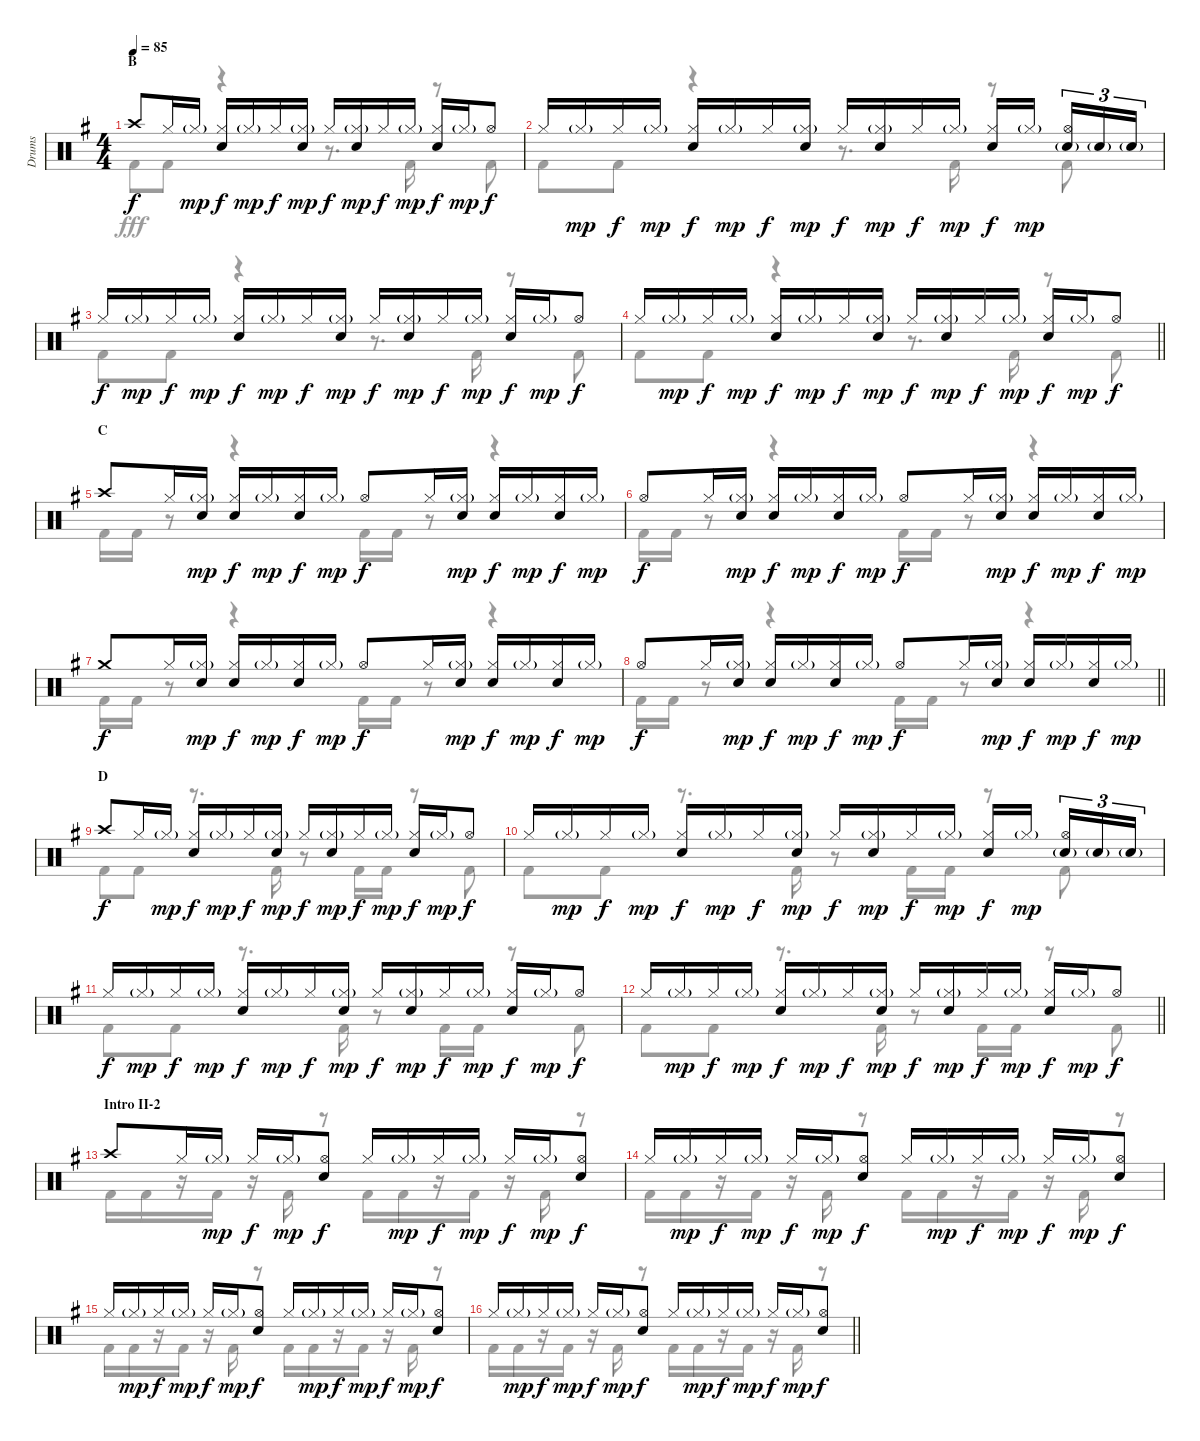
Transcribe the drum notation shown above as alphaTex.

\track ("Drums" "Drums") {instrument percussion}
\staff {score}
\articulation defaults
\voice
\ts (4 4)
\section ("" "B")
\tempo 85
\clef neutral
\ks g "Crash high (hit)".8{dy f} "Hi-Hat (closed)".16 "Hi-Hat (closed)"{g}.16{dy mp}
("Hi-Hat (closed)" "Snare (hit) 2").16{dy f} "Hi-Hat (closed)"{g}.16{dy mp} "Hi-Hat (closed)".16{dy f} ("Hi-Hat (closed)"{g} "Snare (hit) 2").16{dy mp} "Hi-Hat (closed)".16{dy f} ("Hi-Hat (closed)"{g} "Snare (hit) 2").16{dy mp} "Hi-Hat (closed)".16{dy f} "Hi-Hat (closed)"{g}.16{dy mp} ("Hi-Hat (closed)" "Snare (hit) 2").16{dy f} "Hi-Hat (closed)"{g}.16{dy mp} "Hi-Hat (open)".8{dy f} |
"Hi-Hat (closed)".16 "Hi-Hat (closed)"{g}.16{dy mp} "Hi-Hat (closed)".16{dy f} "Hi-Hat (closed)"{g}.16{dy mp} ("Hi-Hat (closed)" "Snare (hit) 2").16{dy f} "Hi-Hat (closed)"{g}.16{dy mp} "Hi-Hat (closed)".16{dy f} ("Hi-Hat (closed)"{g} "Snare (hit) 2").16{dy mp} "Hi-Hat (closed)".16{dy f} ("Hi-Hat (closed)"{g} "Snare (hit) 2").16{dy mp} "Hi-Hat (closed)".16{dy f} "Hi-Hat (closed)"{g}.16{dy mp} ("Hi-Hat (closed)" "Snare (hit) 2").16{dy f} "Hi-Hat (closed)"{g}.16{dy mp beam splitsecondary} ("Hi-Hat (open)" "Snare (hit) 2"{g}).16{tu (3 2)} "Snare (hit) 2"{g}.16{tu (3 2)} "Snare (hit) 2"{g}.16{tu (3 2)} |
"Hi-Hat (closed)".16{dy f} "Hi-Hat (closed)"{g}.16{dy mp} "Hi-Hat (closed)".16{dy f} "Hi-Hat (closed)"{g}.16{dy mp} ("Hi-Hat (closed)" "Snare (hit) 2").16{dy f} "Hi-Hat (closed)"{g}.16{dy mp} "Hi-Hat (closed)".16{dy f} ("Hi-Hat (closed)"{g} "Snare (hit) 2").16{dy mp} "Hi-Hat (closed)".16{dy f} ("Hi-Hat (closed)"{g} "Snare (hit) 2").16{dy mp} "Hi-Hat (closed)".16{dy f} "Hi-Hat (closed)"{g}.16{dy mp} ("Hi-Hat (closed)" "Snare (hit) 2").16{dy f} "Hi-Hat (closed)"{g}.16{dy mp} "Hi-Hat (open)".8{dy f} |
\barLineRight lightlight "Hi-Hat (closed)".16 "Hi-Hat (closed)"{g}.16{dy mp} "Hi-Hat (closed)".16{dy f} "Hi-Hat (closed)"{g}.16{dy mp}
("Hi-Hat (closed)" "Snare (hit) 2").16{dy f} "Hi-Hat (closed)"{g}.16{dy mp} "Hi-Hat (closed)".16{dy f} ("Hi-Hat (closed)"{g} "Snare (hit) 2").16{dy mp} "Hi-Hat (closed)".16{dy f} ("Hi-Hat (closed)"{g} "Snare (hit) 2").16{dy mp} "Hi-Hat (closed)".16{dy f} "Hi-Hat (closed)"{g}.16{dy mp} ("Hi-Hat (closed)" "Snare (hit) 2").16{dy f} "Hi-Hat (closed)"{g}.16{dy mp} "Hi-Hat (open)".8{dy f} |
\section ("" "C")
"Crash high (hit)".8 "Hi-Hat (closed)".16 ("Hi-Hat (closed)"{g} "Snare (hit) 2").16{dy mp} ("Hi-Hat (closed)" "Snare (hit) 2").16{dy f} "Hi-Hat (closed)"{g}.16{dy mp} ("Hi-Hat (closed)" "Snare (hit) 2").16{dy f} "Hi-Hat (closed)"{g}.16{dy mp} "Hi-Hat (open)".8{dy f} "Hi-Hat (closed)".16 ("Hi-Hat (closed)"{g} "Snare (hit) 2").16{dy mp} ("Hi-Hat (closed)" "Snare (hit) 2").16{dy f} "Hi-Hat (closed)"{g}.16{dy mp} ("Hi-Hat (closed)" "Snare (hit) 2").16{dy f} "Hi-Hat (closed)"{g}.16{dy mp} |
"Hi-Hat (open)".8{dy f} "Hi-Hat (closed)".16 ("Hi-Hat (closed)"{g} "Snare (hit) 2").16{dy mp} ("Hi-Hat (closed)" "Snare (hit) 2").16{dy f} "Hi-Hat (closed)"{g}.16{dy mp} ("Hi-Hat (closed)" "Snare (hit) 2").16{dy f} "Hi-Hat (closed)"{g}.16{dy mp} "Hi-Hat (open)".8{dy f} "Hi-Hat (closed)".16 ("Hi-Hat (closed)"{g} "Snare (hit) 2").16{dy mp} ("Hi-Hat (closed)" "Snare (hit) 2").16{dy f} "Hi-Hat (closed)"{g}.16{dy mp} ("Hi-Hat (closed)" "Snare (hit) 2").16{dy f} "Hi-Hat (closed)"{g}.16{dy mp} |
"Crash medium (hit)".8{dy f} "Hi-Hat (closed)".16 ("Hi-Hat (closed)"{g} "Snare (hit) 2").16{dy mp} ("Hi-Hat (closed)" "Snare (hit) 2").16{dy f} "Hi-Hat (closed)"{g}.16{dy mp} ("Hi-Hat (closed)" "Snare (hit) 2").16{dy f} "Hi-Hat (closed)"{g}.16{dy mp} "Hi-Hat (open)".8{dy f} "Hi-Hat (closed)".16 ("Hi-Hat (closed)"{g} "Snare (hit) 2").16{dy mp} ("Hi-Hat (closed)" "Snare (hit) 2").16{dy f} "Hi-Hat (closed)"{g}.16{dy mp} ("Hi-Hat (closed)" "Snare (hit) 2").16{dy f} "Hi-Hat (closed)"{g}.16{dy mp} |
\barLineRight lightlight "Hi-Hat (open)".8{dy f} "Hi-Hat (closed)".16
("Hi-Hat (closed)"{g} "Snare (hit) 2").16{dy mp} ("Hi-Hat (closed)" "Snare (hit) 2").16{dy f} "Hi-Hat (closed)"{g}.16{dy mp} ("Hi-Hat (closed)" "Snare (hit) 2").16{dy f} "Hi-Hat (closed)"{g}.16{dy mp} "Hi-Hat (open)".8{dy f} "Hi-Hat (closed)".16 ("Hi-Hat (closed)"{g} "Snare (hit) 2").16{dy mp} ("Hi-Hat (closed)" "Snare (hit) 2").16{dy f} "Hi-Hat (closed)"{g}.16{dy mp} ("Hi-Hat (closed)" "Snare (hit) 2").16{dy f} "Hi-Hat (closed)"{g}.16{dy mp} |
\section ("" "D")
"Crash high (hit)".8{dy f} "Hi-Hat (closed)".16 "Hi-Hat (closed)"{g}.16{dy mp} ("Hi-Hat (closed)" "Snare (hit) 2").16{dy f} "Hi-Hat (closed)"{g}.16{dy mp} "Hi-Hat (closed)".16{dy f} ("Hi-Hat (closed)"{g} "Snare (hit) 2").16{dy mp} "Hi-Hat (closed)".16{dy f} ("Hi-Hat (closed)"{g} "Snare (hit) 2").16{dy mp} "Hi-Hat (closed)".16{dy f} "Hi-Hat (closed)"{g}.16{dy mp} ("Hi-Hat (closed)" "Snare (hit) 2").16{dy f} "Hi-Hat (closed)"{g}.16{dy mp} "Hi-Hat (open)".8{dy f} |
"Hi-Hat (closed)".16 "Hi-Hat (closed)"{g}.16{dy mp} "Hi-Hat (closed)".16{dy f} "Hi-Hat (closed)"{g}.16{dy mp} ("Hi-Hat (closed)" "Snare (hit) 2").16{dy f} "Hi-Hat (closed)"{g}.16{dy mp} "Hi-Hat (closed)".16{dy f} ("Hi-Hat (closed)"{g} "Snare (hit) 2").16{dy mp} "Hi-Hat (closed)".16{dy f} ("Hi-Hat (closed)"{g} "Snare (hit) 2").16{dy mp} "Hi-Hat (closed)".16{dy f} "Hi-Hat (closed)"{g}.16{dy mp} ("Hi-Hat (closed)" "Snare (hit) 2").16{dy f} "Hi-Hat (closed)"{g}.16{dy mp beam splitsecondary} ("Hi-Hat (open)" "Snare (hit) 2"{g}).16{tu (3 2)} "Snare (hit) 2"{g}.16{tu (3 2)} "Snare (hit) 2"{g}.16{tu (3 2)} |
"Hi-Hat (closed)".16{dy f} "Hi-Hat (closed)"{g}.16{dy mp} "Hi-Hat (closed)".16{dy f} "Hi-Hat (closed)"{g}.16{dy mp} ("Hi-Hat (closed)" "Snare (hit) 2").16{dy f} "Hi-Hat (closed)"{g}.16{dy mp} "Hi-Hat (closed)".16{dy f} ("Hi-Hat (closed)"{g} "Snare (hit) 2").16{dy mp} "Hi-Hat (closed)".16{dy f} ("Hi-Hat (closed)"{g} "Snare (hit) 2").16{dy mp} "Hi-Hat (closed)".16{dy f} "Hi-Hat (closed)"{g}.16{dy mp} ("Hi-Hat (closed)" "Snare (hit) 2").16{dy f} "Hi-Hat (closed)"{g}.16{dy mp} "Hi-Hat (open)".8{dy f} |
\barLineRight lightlight "Hi-Hat (closed)".16 "Hi-Hat (closed)"{g}.16{dy mp} "Hi-Hat (closed)".16{dy f} "Hi-Hat (closed)"{g}.16{dy mp}
("Hi-Hat (closed)" "Snare (hit) 2").16{dy f} "Hi-Hat (closed)"{g}.16{dy mp} "Hi-Hat (closed)".16{dy f} ("Hi-Hat (closed)"{g} "Snare (hit) 2").16{dy mp} "Hi-Hat (closed)".16{dy f} ("Hi-Hat (closed)"{g} "Snare (hit) 2").16{dy mp} "Hi-Hat (closed)".16{dy f} "Hi-Hat (closed)"{g}.16{dy mp} ("Hi-Hat (closed)" "Snare (hit) 2").16{dy f} "Hi-Hat (closed)"{g}.16{dy mp} "Hi-Hat (open)".8{dy f} |
\section ("" "Intro II-2")
"Crash high (hit)".8 "Hi-Hat (closed)".16 "Hi-Hat (closed)"{g}.16{dy mp} "Hi-Hat (closed)".16{dy f} "Hi-Hat (closed)"{g}.16{dy mp} ("Hi-Hat (open)" "Snare (hit) 2").8{dy f} "Hi-Hat (closed)".16 "Hi-Hat (closed)"{g}.16{dy mp} "Hi-Hat (closed)".16{dy f} "Hi-Hat (closed)"{g}.16{dy mp} "Hi-Hat (closed)".16{dy f} "Hi-Hat (closed)"{g}.16{dy mp} ("Hi-Hat (open)" "Snare (hit) 2").8{dy f} |
"Hi-Hat (closed)".16 "Hi-Hat (closed)"{g}.16{dy mp} "Hi-Hat (closed)".16{dy f} "Hi-Hat (closed)"{g}.16{dy mp} "Hi-Hat (closed)".16{dy f} "Hi-Hat (closed)"{g}.16{dy mp} ("Hi-Hat (open)" "Snare (hit) 2").8{dy f} "Hi-Hat (closed)".16 "Hi-Hat (closed)"{g}.16{dy mp} "Hi-Hat (closed)".16{dy f} "Hi-Hat (closed)"{g}.16{dy mp} "Hi-Hat (closed)".16{dy f} "Hi-Hat (closed)"{g}.16{dy mp} ("Hi-Hat (open)" "Snare (hit) 2").8{dy f} |
"Hi-Hat (closed)".16 "Hi-Hat (closed)"{g}.16{dy mp} "Hi-Hat (closed)".16{dy f} "Hi-Hat (closed)"{g}.16{dy mp} "Hi-Hat (closed)".16{dy f} "Hi-Hat (closed)"{g}.16{dy mp} ("Hi-Hat (open)" "Snare (hit) 2").8{dy f} "Hi-Hat (closed)".16 "Hi-Hat (closed)"{g}.16{dy mp} "Hi-Hat (closed)".16{dy f} "Hi-Hat (closed)"{g}.16{dy mp} "Hi-Hat (closed)".16{dy f} "Hi-Hat (closed)"{g}.16{dy mp} ("Hi-Hat (open)" "Snare (hit) 2").8{dy f} |
\barLineRight lightlight "Hi-Hat (closed)".16 "Hi-Hat (closed)"{g}.16{dy mp} "Hi-Hat (closed)".16{dy f} "Hi-Hat (closed)"{g}.16{dy mp} "Hi-Hat (closed)".16{dy f} "Hi-Hat (closed)"{g}.16{dy mp}
("Hi-Hat (open)" "Snare (hit) 2").8{dy f} "Hi-Hat (closed)".16 "Hi-Hat (closed)"{g}.16{dy mp} "Hi-Hat (closed)".16{dy f} "Hi-Hat (closed)"{g}.16{dy mp} "Hi-Hat (closed)".16{dy f} "Hi-Hat (closed)"{g}.16{dy mp} ("Hi-Hat (open)" "Snare (hit) 2").8{dy f}
\voice
\clef neutral
\ottava regular
\simile none
\ks g "Kick (hit) 2".8{dy fff} "Kick (hit) 2".8
r.4 r.8{d} "Kick (hit) 2".16 r.8 "Kick (hit) 2".8 |
"Kick (hit) 2".8 "Kick (hit) 2".8 r.4 r.8{d} "Kick (hit) 2".16 r.8 "Kick (hit) 2".8 |
"Kick (hit) 2".8 "Kick (hit) 2".8 r.4 r.8{d} "Kick (hit) 2".16 r.8 "Kick (hit) 2".8 |
\barLineRight lightlight "Kick (hit) 2".8 "Kick (hit) 2".8
r.4 r.8{d} "Kick (hit) 2".16 r.8 "Kick (hit) 2".8 |
"Kick (hit) 2".16 "Kick (hit) 2".16 r.8 r.4 "Kick (hit) 2".16 "Kick (hit) 2".16 r.8 r.4 |
"Kick (hit) 2".16 "Kick (hit) 2".16 r.8 r.4 "Kick (hit) 2".16 "Kick (hit) 2".16 r.8 r.4 |
"Kick (hit) 2".16 "Kick (hit) 2".16 r.8 r.4 "Kick (hit) 2".16 "Kick (hit) 2".16 r.8 r.4 |
\barLineRight lightlight "Kick (hit) 2".16 "Kick (hit) 2".16
r.8 r.4 "Kick (hit) 2".16 "Kick (hit) 2".16 r.8 r.4 |
"Kick (hit) 2".8 "Kick (hit) 2".8 r.8{d} "Kick (hit) 2".16 r.8 "Kick (hit) 2".16 "Kick (hit) 2".16 r.8 "Kick (hit) 2".8 |
"Kick (hit) 2".8 "Kick (hit) 2".8 r.8{d} "Kick (hit) 2".16 r.8 "Kick (hit) 2".16 "Kick (hit) 2".16 r.8 "Kick (hit) 2".8 |
"Kick (hit) 2".8 "Kick (hit) 2".8 r.8{d} "Kick (hit) 2".16 r.8 "Kick (hit) 2".16 "Kick (hit) 2".16 r.8 "Kick (hit) 2".8 |
\barLineRight lightlight "Kick (hit) 2".8 "Kick (hit) 2".8
r.8{d} "Kick (hit) 2".16 r.8 "Kick (hit) 2".16 "Kick (hit) 2".16 r.8 "Kick (hit) 2".8 |
"Kick (hit) 2".16 "Kick (hit) 2".16 r.16 "Kick (hit) 2".16 r.16 "Kick (hit) 2".16 r.8 "Kick (hit) 2".16 "Kick (hit) 2".16 r.16 "Kick (hit) 2".16 r.16 "Kick (hit) 2".16 r.8 |
"Kick (hit) 2".16 "Kick (hit) 2".16 r.16 "Kick (hit) 2".16 r.16 "Kick (hit) 2".16 r.8 "Kick (hit) 2".16 "Kick (hit) 2".16 r.16 "Kick (hit) 2".16 r.16 "Kick (hit) 2".16 r.8 |
"Kick (hit) 2".16 "Kick (hit) 2".16 r.16 "Kick (hit) 2".16 r.16 "Kick (hit) 2".16 r.8 "Kick (hit) 2".16 "Kick (hit) 2".16 r.16 "Kick (hit) 2".16 r.16 "Kick (hit) 2".16 r.8 |
\barLineRight lightlight "Kick (hit) 2".16 "Kick (hit) 2".16
r.16 "Kick (hit) 2".16 r.16 "Kick (hit) 2".16 r.8 "Kick (hit) 2".16 "Kick (hit) 2".16 r.16 "Kick (hit) 2".16 r.16 "Kick (hit) 2".16 r.8
